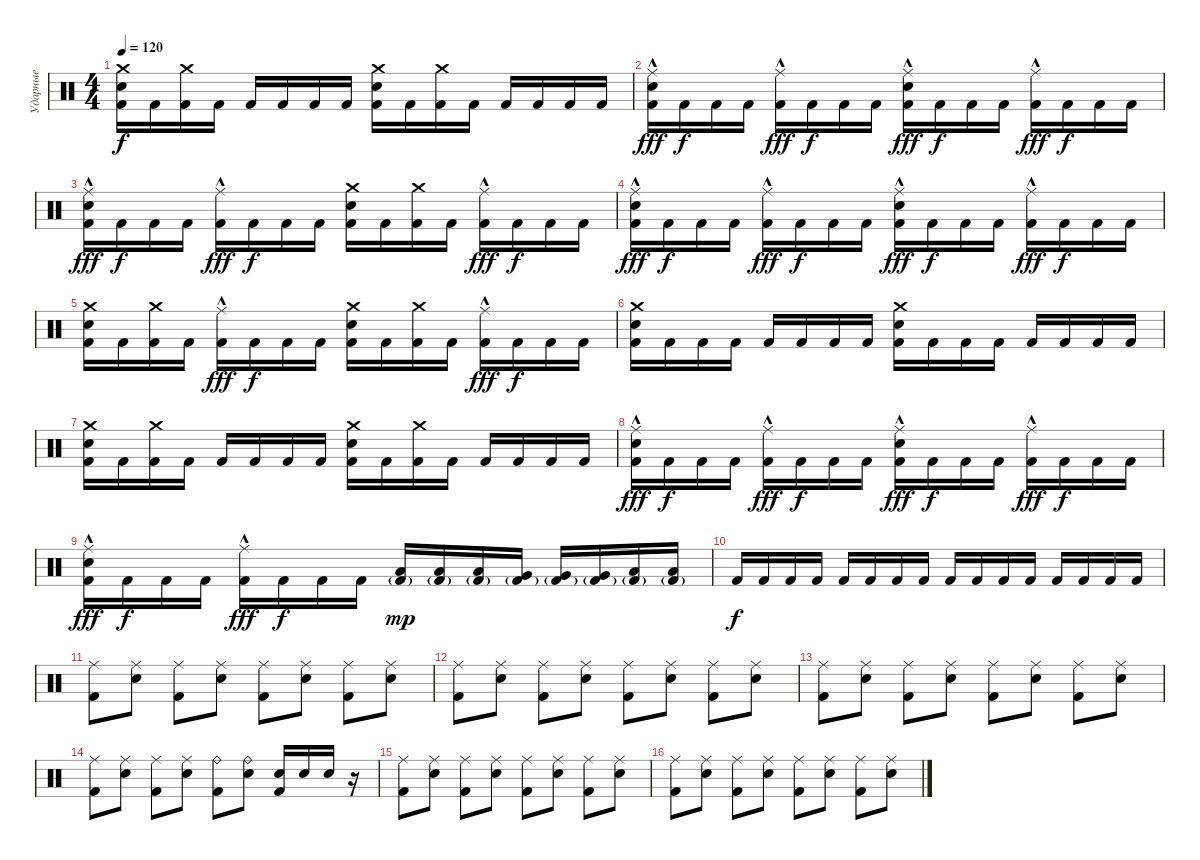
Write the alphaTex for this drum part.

\track ("Ударные" "Ударные") {instrument percussion}
\staff {score}
\articulation defaults
\ts (4 4)
\tempo 120
\clef neutral
\ks c
("Electric Snare (hit)" "Kick (hit) 2" "Crash medium (hit)").16{dy f} "Kick (hit) 2".16 ("Kick (hit) 2" "Crash medium (hit)").16 "Kick (hit) 2".16 "Kick (hit) 2".16 "Kick (hit) 2".16 "Kick (hit) 2".16 "Kick (hit) 2".16 ("Electric Snare (hit)" "Kick (hit) 2" "Crash medium (hit)").16 "Kick (hit) 2".16 ("Kick (hit) 2" "Crash medium (hit)").16 "Kick (hit) 2".16 "Kick (hit) 2".16 "Kick (hit) 2".16 "Kick (hit) 2".16 "Kick (hit) 2".16 |
("Electric Snare (hit)" "Kick (hit) 2" "Ride (middle)"{hac}).16{dy fff} "Kick (hit) 2".16{dy f} "Kick (hit) 2".16 "Kick (hit) 2".16 ("Kick (hit) 2" "Ride (middle)"{hac}).16{dy fff} "Kick (hit) 2".16{dy f} "Kick (hit) 2".16 "Kick (hit) 2".16 ("Electric Snare (hit)" "Kick (hit) 2" "Ride (middle)"{hac}).16{dy fff} "Kick (hit) 2".16{dy f} "Kick (hit) 2".16 "Kick (hit) 2".16 ("Kick (hit) 2" "Ride (middle)"{hac}).16{dy fff} "Kick (hit) 2".16{dy f} "Kick (hit) 2".16 "Kick (hit) 2".16 |
("Electric Snare (hit)" "Kick (hit) 2" "Ride (middle)"{hac}).16{dy fff} "Kick (hit) 2".16{dy f} "Kick (hit) 2".16 "Kick (hit) 2".16 ("Kick (hit) 2" "Ride (middle)"{hac}).16{dy fff} "Kick (hit) 2".16{dy f} "Kick (hit) 2".16 "Kick (hit) 2".16 ("Electric Snare (hit)" "Kick (hit) 2" "Crash medium (hit)").16 "Kick (hit) 2".16 ("Kick (hit) 2" "Crash medium (hit)").16 "Kick (hit) 2".16 ("Kick (hit) 2" "Ride (middle)"{hac}).16{dy fff} "Kick (hit) 2".16{dy f} "Kick (hit) 2".16 "Kick (hit) 2".16 |
("Electric Snare (hit)" "Kick (hit) 2" "Ride (middle)"{hac}).16{dy fff} "Kick (hit) 2".16{dy f} "Kick (hit) 2".16 "Kick (hit) 2".16 ("Kick (hit) 2" "Ride (middle)"{hac}).16{dy fff} "Kick (hit) 2".16{dy f} "Kick (hit) 2".16 "Kick (hit) 2".16 ("Electric Snare (hit)" "Kick (hit) 2" "Ride (middle)"{hac}).16{dy fff} "Kick (hit) 2".16{dy f} "Kick (hit) 2".16 "Kick (hit) 2".16 ("Kick (hit) 2" "Ride (middle)"{hac}).16{dy fff} "Kick (hit) 2".16{dy f} "Kick (hit) 2".16 "Kick (hit) 2".16 |
("Electric Snare (hit)" "Kick (hit) 2" "Crash medium (hit)").16 "Kick (hit) 2".16 ("Kick (hit) 2" "Crash medium (hit)").16 "Kick (hit) 2".16 ("Kick (hit) 2" "Ride (middle)"{hac}).16{dy fff} "Kick (hit) 2".16{dy f} "Kick (hit) 2".16 "Kick (hit) 2".16 ("Electric Snare (hit)" "Kick (hit) 2" "Crash medium (hit)").16 "Kick (hit) 2".16 ("Kick (hit) 2" "Crash medium (hit)").16 "Kick (hit) 2".16 ("Kick (hit) 2" "Ride (middle)"{hac}).16{dy fff} "Kick (hit) 2".16{dy f} "Kick (hit) 2".16 "Kick (hit) 2".16 |
("Electric Snare (hit)" "Kick (hit) 2" "Crash medium (hit)").16 "Kick (hit) 2".16 "Kick (hit) 2".16 "Kick (hit) 2".16 "Kick (hit) 2".16 "Kick (hit) 2".16 "Kick (hit) 2".16 "Kick (hit) 2".16 ("Electric Snare (hit)" "Kick (hit) 2" "Crash medium (hit)").16 "Kick (hit) 2".16 "Kick (hit) 2".16 "Kick (hit) 2".16 "Kick (hit) 2".16 "Kick (hit) 2".16 "Kick (hit) 2".16 "Kick (hit) 2".16 |
("Electric Snare (hit)" "Kick (hit) 2" "Crash medium (hit)").16 "Kick (hit) 2".16 ("Kick (hit) 2" "Crash medium (hit)").16 "Kick (hit) 2".16 "Kick (hit) 2".16 "Kick (hit) 2".16 "Kick (hit) 2".16 "Kick (hit) 2".16 ("Electric Snare (hit)" "Kick (hit) 2" "Crash medium (hit)").16 "Kick (hit) 2".16 ("Kick (hit) 2" "Crash medium (hit)").16 "Kick (hit) 2".16 "Kick (hit) 2".16 "Kick (hit) 2".16 "Kick (hit) 2".16 "Kick (hit) 2".16 |
("Electric Snare (hit)" "Kick (hit) 2" "Ride (middle)"{hac}).16{dy fff} "Kick (hit) 2".16{dy f} "Kick (hit) 2".16 "Kick (hit) 2".16 ("Kick (hit) 2" "Ride (middle)"{hac}).16{dy fff} "Kick (hit) 2".16{dy f} "Kick (hit) 2".16 "Kick (hit) 2".16 ("Electric Snare (hit)" "Kick (hit) 2" "Ride (middle)"{hac}).16{dy fff} "Kick (hit) 2".16{dy f} "Kick (hit) 2".16 "Kick (hit) 2".16 ("Kick (hit) 2" "Ride (middle)"{hac}).16{dy fff} "Kick (hit) 2".16{dy f} "Kick (hit) 2".16 "Kick (hit) 2".16 |
("Electric Snare (hit)" "Kick (hit) 2" "Ride (middle)"{hac}).16{dy fff} "Kick (hit) 2".16{dy f} "Kick (hit) 2".16 "Kick (hit) 2".16 ("Kick (hit) 2" "Ride (middle)"{hac}).16{dy fff} "Kick (hit) 2".16{dy f} "Kick (hit) 2".16 "Kick (hit) 2".16 ("Low Tom (hit)" "Kick (hit) 2"{g}).16{dy mp} ("Low Tom (hit)" "Kick (hit) 2"{g}).16 ("Low Tom (hit)" "Kick (hit) 2"{g}).16 ("Very Low Tom (hit)" "Kick (hit) 2"{g}).16 ("Very Low Tom (hit)" "Kick (hit) 2"{g}).16 ("Very Low Tom (hit)" "Kick (hit) 2"{g}).16 ("Low Floor Tom (hit)" "Kick (hit) 2"{g}).16 ("Low Floor Tom (hit)" "Kick (hit) 2"{g}).16 |
"Kick (hit) 2".16{dy f} "Kick (hit) 2".16 "Kick (hit) 2".16 "Kick (hit) 2".16 "Kick (hit) 2".16 "Kick (hit) 2".16 "Kick (hit) 2".16 "Kick (hit) 2".16 "Kick (hit) 2".16 "Kick (hit) 2".16 "Kick (hit) 2".16 "Kick (hit) 2".16 "Kick (hit) 2".16 "Kick (hit) 2".16 "Kick (hit) 2".16 "Kick (hit) 2".16 |
("Kick (hit) 2" "Ride (middle)").8 ("Electric Snare (hit)" "Ride (middle)").8 ("Kick (hit) 2" "Ride (middle)").8 ("Electric Snare (hit)" "Ride (middle)").8 ("Kick (hit) 2" "Ride (middle)").8 ("Electric Snare (hit)" "Ride (middle)").8 ("Kick (hit) 2" "Ride (middle)").8 ("Electric Snare (hit)" "Ride (middle)").8 |
("Kick (hit) 2" "Ride (middle)").8 ("Electric Snare (hit)" "Ride (middle)").8 ("Kick (hit) 2" "Ride (middle)").8 ("Electric Snare (hit)" "Ride (middle)").8 ("Kick (hit) 2" "Ride (middle)").8 ("Electric Snare (hit)" "Ride (middle)").8 ("Kick (hit) 2" "Ride (middle)").8 ("Electric Snare (hit)" "Ride (middle)").8 |
("Kick (hit) 2" "Ride (middle)").8 ("Electric Snare (hit)" "Ride (middle)").8 ("Kick (hit) 2" "Ride (middle)").8 ("Electric Snare (hit)" "Ride (middle)").8 ("Kick (hit) 2" "Ride (middle)").8 ("Electric Snare (hit)" "Ride (middle)").8 ("Kick (hit) 2" "Ride (middle)").8 ("Electric Snare (hit)" "Ride (middle)").8 |
("Kick (hit) 2" "Ride (middle)").8 ("Electric Snare (hit)" "Ride (middle)").8 ("Kick (hit) 2" "Ride (middle)").8 ("Electric Snare (hit)" "Ride (middle)").8 ("Kick (hit) 2" "Ride (bell)").8 ("Electric Snare (hit)" "Ride (bell)").8 ("Electric Snare (hit)" "Kick (hit) 2").16 "Electric Snare (hit)".16 "Electric Snare (hit)".16 r.16 |
("Kick (hit) 2" "Ride (middle)").8 ("Electric Snare (hit)" "Ride (middle)").8 ("Kick (hit) 2" "Ride (middle)").8 ("Electric Snare (hit)" "Ride (middle)").8 ("Kick (hit) 2" "Ride (middle)").8 ("Electric Snare (hit)" "Ride (middle)").8 ("Kick (hit) 2" "Ride (middle)").8 ("Electric Snare (hit)" "Ride (middle)").8 |
("Kick (hit) 2" "Ride (middle)").8 ("Electric Snare (hit)" "Ride (middle)").8 ("Kick (hit) 2" "Ride (middle)").8 ("Electric Snare (hit)" "Ride (middle)").8 ("Kick (hit) 2" "Ride (middle)").8 ("Electric Snare (hit)" "Ride (middle)").8 ("Kick (hit) 2" "Ride (middle)").8 ("Electric Snare (hit)" "Ride (middle)").8
